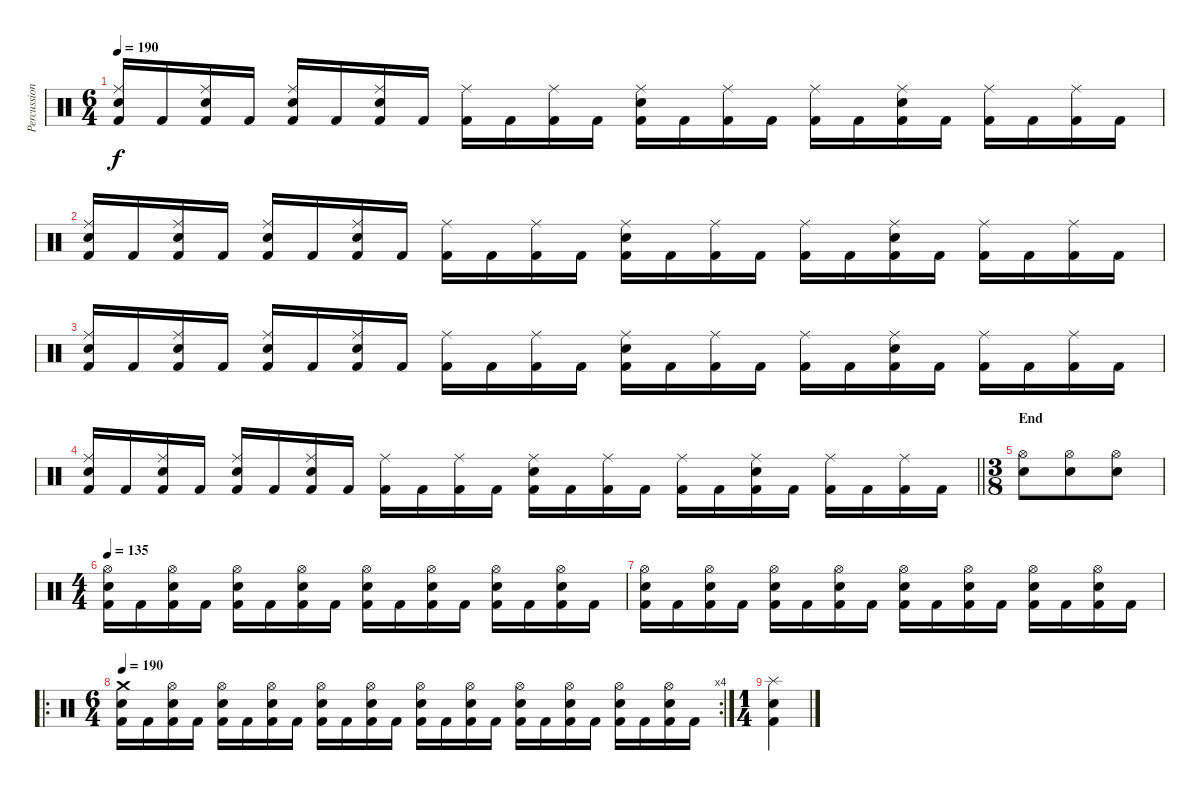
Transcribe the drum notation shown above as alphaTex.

\track ("Percussion" "Percussion") {instrument percussion}
\staff {score}
\articulation defaults
\ts (6 4)
\tempo 190
\clef neutral
\ks c
("Kick (hit) 2" "Ride (middle)" "Snare (hit) 2").16{dy f} "Kick (hit) 2".16 ("Kick (hit) 2" "Ride (middle)" "Snare (hit) 2").16 "Kick (hit) 2".16 ("Kick (hit) 2" "Ride (middle)" "Snare (hit) 2").16 "Kick (hit) 2".16 ("Kick (hit) 2" "Ride (middle)" "Snare (hit) 2").16 "Kick (hit) 2".16 ("Kick (hit) 2" "Ride (middle)").16 "Kick (hit) 2".16 ("Kick (hit) 2" "Ride (middle)").16 "Kick (hit) 2".16 ("Kick (hit) 2" "Ride (middle)" "Snare (hit) 2").16 "Kick (hit) 2".16 ("Kick (hit) 2" "Ride (middle)").16 "Kick (hit) 2".16 ("Kick (hit) 2" "Ride (middle)").16 "Kick (hit) 2".16 ("Kick (hit) 2" "Ride (middle)" "Snare (hit) 2").16 "Kick (hit) 2".16 ("Kick (hit) 2" "Ride (middle)").16 "Kick (hit) 2".16 ("Kick (hit) 2" "Ride (middle)").16 "Kick (hit) 2".16 |
("Kick (hit) 2" "Ride (middle)" "Snare (hit) 2").16 "Kick (hit) 2".16 ("Kick (hit) 2" "Ride (middle)" "Snare (hit) 2").16 "Kick (hit) 2".16 ("Kick (hit) 2" "Ride (middle)" "Snare (hit) 2").16 "Kick (hit) 2".16 ("Kick (hit) 2" "Ride (middle)" "Snare (hit) 2").16 "Kick (hit) 2".16 ("Kick (hit) 2" "Ride (middle)").16 "Kick (hit) 2".16 ("Kick (hit) 2" "Ride (middle)").16 "Kick (hit) 2".16 ("Kick (hit) 2" "Ride (middle)" "Snare (hit) 2").16 "Kick (hit) 2".16 ("Kick (hit) 2" "Ride (middle)").16 "Kick (hit) 2".16 ("Kick (hit) 2" "Ride (middle)").16 "Kick (hit) 2".16 ("Kick (hit) 2" "Ride (middle)" "Snare (hit) 2").16 "Kick (hit) 2".16 ("Kick (hit) 2" "Ride (middle)").16 "Kick (hit) 2".16 ("Kick (hit) 2" "Ride (middle)").16 "Kick (hit) 2".16 |
("Kick (hit) 2" "Ride (middle)" "Snare (hit) 2").16 "Kick (hit) 2".16 ("Kick (hit) 2" "Ride (middle)" "Snare (hit) 2").16 "Kick (hit) 2".16 ("Kick (hit) 2" "Ride (middle)" "Snare (hit) 2").16 "Kick (hit) 2".16 ("Kick (hit) 2" "Ride (middle)" "Snare (hit) 2").16 "Kick (hit) 2".16 ("Kick (hit) 2" "Ride (middle)").16 "Kick (hit) 2".16 ("Kick (hit) 2" "Ride (middle)").16 "Kick (hit) 2".16 ("Kick (hit) 2" "Ride (middle)" "Snare (hit) 2").16 "Kick (hit) 2".16 ("Kick (hit) 2" "Ride (middle)").16 "Kick (hit) 2".16 ("Kick (hit) 2" "Ride (middle)").16 "Kick (hit) 2".16 ("Kick (hit) 2" "Ride (middle)" "Snare (hit) 2").16 "Kick (hit) 2".16 ("Kick (hit) 2" "Ride (middle)").16 "Kick (hit) 2".16 ("Kick (hit) 2" "Ride (middle)").16 "Kick (hit) 2".16 |
\barLineRight lightlight
("Kick (hit) 2" "Ride (middle)" "Snare (hit) 2").16 "Kick (hit) 2".16 ("Kick (hit) 2" "Ride (middle)" "Snare (hit) 2").16 "Kick (hit) 2".16 ("Kick (hit) 2" "Ride (middle)" "Snare (hit) 2").16 "Kick (hit) 2".16 ("Kick (hit) 2" "Ride (middle)" "Snare (hit) 2").16 "Kick (hit) 2".16 ("Kick (hit) 2" "Ride (middle)").16 "Kick (hit) 2".16 ("Kick (hit) 2" "Ride (middle)").16 "Kick (hit) 2".16 ("Kick (hit) 2" "Ride (middle)" "Snare (hit) 2").16 "Kick (hit) 2".16 ("Kick (hit) 2" "Ride (middle)").16 "Kick (hit) 2".16 ("Kick (hit) 2" "Ride (middle)").16 "Kick (hit) 2".16 ("Kick (hit) 2" "Ride (middle)" "Snare (hit) 2").16 "Kick (hit) 2".16 ("Kick (hit) 2" "Ride (middle)").16 "Kick (hit) 2".16 ("Kick (hit) 2" "Ride (middle)").16 "Kick (hit) 2".16 |
\ts (3 8)
\section ("" "End")
("Hi-Hat (open)" "Snare (hit) 2").8 ("Hi-Hat (open)" "Snare (hit) 2").8 ("Hi-Hat (open)" "Snare (hit) 2").8 |
\ts (4 4)
\tempo 137
\tempo 135
("Kick (hit) 2" "Hi-Hat (open)" "Snare (hit) 2").16 "Kick (hit) 2".16 ("Kick (hit) 2" "Hi-Hat (open)" "Snare (hit) 2").16 "Kick (hit) 2".16 ("Kick (hit) 2" "Hi-Hat (open)" "Snare (hit) 2").16 "Kick (hit) 2".16 ("Kick (hit) 2" "Hi-Hat (open)" "Snare (hit) 2").16 "Kick (hit) 2".16 ("Kick (hit) 2" "Hi-Hat (open)" "Snare (hit) 2").16 "Kick (hit) 2".16 ("Kick (hit) 2" "Hi-Hat (open)" "Snare (hit) 2").16 "Kick (hit) 2".16 ("Kick (hit) 2" "Hi-Hat (open)" "Snare (hit) 2").16 "Kick (hit) 2".16 ("Kick (hit) 2" "Hi-Hat (open)" "Snare (hit) 2").16 "Kick (hit) 2".16 |
("Kick (hit) 2" "Hi-Hat (open)" "Snare (hit) 2").16 "Kick (hit) 2".16 ("Kick (hit) 2" "Hi-Hat (open)" "Snare (hit) 2").16 "Kick (hit) 2".16 ("Kick (hit) 2" "Hi-Hat (open)" "Snare (hit) 2").16 "Kick (hit) 2".16 ("Kick (hit) 2" "Hi-Hat (open)" "Snare (hit) 2").16 "Kick (hit) 2".16 ("Kick (hit) 2" "Hi-Hat (open)" "Snare (hit) 2").16 "Kick (hit) 2".16 ("Kick (hit) 2" "Hi-Hat (open)" "Snare (hit) 2").16 "Kick (hit) 2".16 ("Kick (hit) 2" "Hi-Hat (open)" "Snare (hit) 2").16 "Kick (hit) 2".16 ("Kick (hit) 2" "Hi-Hat (open)" "Snare (hit) 2").16 "Kick (hit) 2".16 |
\ro
\rc 4
\ts (6 4)
\tempo 190
("Kick (hit) 2" "Crash medium (hit)" "Snare (hit) 2").16 "Kick (hit) 2".16 ("Kick (hit) 2" "Hi-Hat (open)" "Snare (hit) 2").16 "Kick (hit) 2".16 ("Kick (hit) 2" "Hi-Hat (open)" "Snare (hit) 2").16 "Kick (hit) 2".16 ("Kick (hit) 2" "Hi-Hat (open)" "Snare (hit) 2").16 "Kick (hit) 2".16 ("Kick (hit) 2" "Hi-Hat (open)" "Snare (hit) 2").16 "Kick (hit) 2".16 ("Kick (hit) 2" "Hi-Hat (open)" "Snare (hit) 2").16 "Kick (hit) 2".16 ("Kick (hit) 2" "Hi-Hat (open)" "Snare (hit) 2").16 "Kick (hit) 2".16 ("Kick (hit) 2" "Hi-Hat (open)" "Snare (hit) 2").16 "Kick (hit) 2".16 ("Kick (hit) 2" "Hi-Hat (open)" "Snare (hit) 2").16 "Kick (hit) 2".16 ("Kick (hit) 2" "Hi-Hat (open)" "Snare (hit) 2").16 "Kick (hit) 2".16 ("Kick (hit) 2" "Hi-Hat (open)" "Snare (hit) 2").16 "Kick (hit) 2".16 ("Kick (hit) 2" "Hi-Hat (open)" "Snare (hit) 2").16 "Kick (hit) 2".16 |
\ts (1 4)
("Kick (hit) 2" "Splash (hit)" "Snare (hit) 2").4
